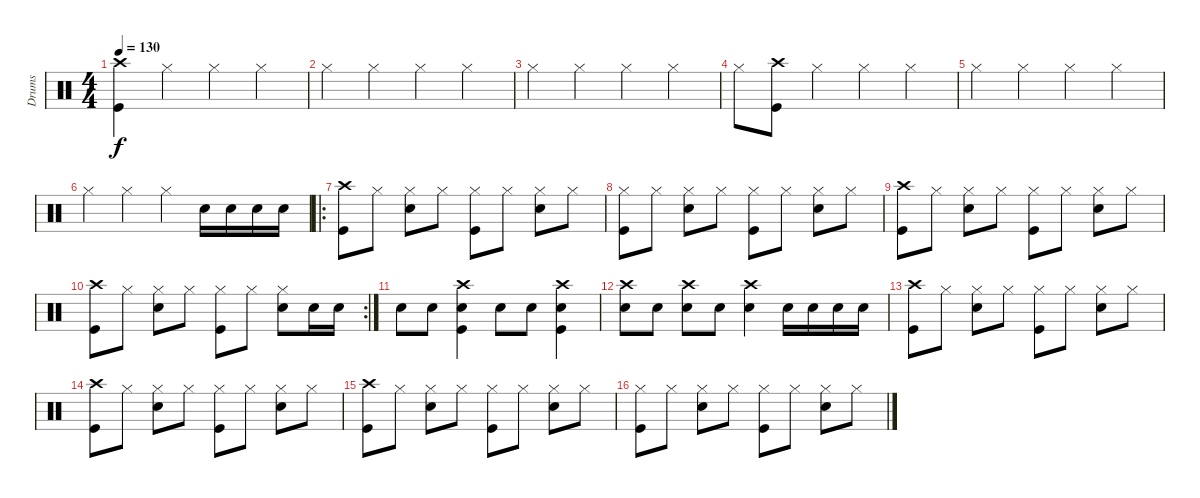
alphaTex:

\track ("Drums" "Drums") {instrument percussion}
\staff {score}
\articulation defaults
\ts (4 4)
\tempo 130
\clef neutral
\ks c
("Crash high (hit)" "Kick (hit)").4{dy f} "Hi-Hat (closed)".4 "Hi-Hat (closed)".4 "Hi-Hat (closed)".4 |
"Hi-Hat (closed)".4 "Hi-Hat (closed)".4 "Hi-Hat (closed)".4 "Hi-Hat (closed)".4 |
"Hi-Hat (closed)".4 "Hi-Hat (closed)".4 "Hi-Hat (closed)".4 "Hi-Hat (closed)".4 |
"Hi-Hat (closed)".8 ("Crash high (hit)" "Kick (hit)").8 "Hi-Hat (closed)".4 "Hi-Hat (closed)".4 "Hi-Hat (closed)".4 |
"Hi-Hat (closed)".4 "Hi-Hat (closed)".4 "Hi-Hat (closed)".4 "Hi-Hat (closed)".4 |
"Hi-Hat (closed)".4 "Hi-Hat (closed)".4 "Hi-Hat (closed)".4 "Snare (hit) 2".16 "Snare (hit) 2".16 "Snare (hit) 2".16 "Snare (hit) 2".16 |
\ro
("Crash high (hit)" "Kick (hit)").8 "Hi-Hat (closed)".8 ("Hi-Hat (closed)" "Snare (hit) 2").8 "Hi-Hat (closed)".8 ("Hi-Hat (closed)" "Kick (hit)").8 "Hi-Hat (closed)".8 ("Hi-Hat (closed)" "Snare (hit) 2").8 "Hi-Hat (closed)".8 |
("Hi-Hat (closed)" "Kick (hit)").8 "Hi-Hat (closed)".8 ("Hi-Hat (closed)" "Snare (hit) 2").8 "Hi-Hat (closed)".8 ("Hi-Hat (closed)" "Kick (hit)").8 "Hi-Hat (closed)".8 ("Hi-Hat (closed)" "Snare (hit) 2").8 "Hi-Hat (closed)".8 |
("Crash high (hit)" "Kick (hit)").8 "Hi-Hat (closed)".8 ("Hi-Hat (closed)" "Snare (hit) 2").8 "Hi-Hat (closed)".8 ("Hi-Hat (closed)" "Kick (hit)").8 "Hi-Hat (closed)".8 ("Hi-Hat (closed)" "Snare (hit) 2").8 "Hi-Hat (closed)".8 |
\rc 2
("Crash high (hit)" "Kick (hit)").8 "Hi-Hat (closed)".8 ("Hi-Hat (closed)" "Snare (hit) 2").8 "Hi-Hat (closed)".8 ("Hi-Hat (closed)" "Kick (hit)").8 "Hi-Hat (closed)".8 ("Hi-Hat (closed)" "Snare (hit) 2").8 "Snare (hit) 2".16 "Snare (hit) 2".16 |
"Snare (hit) 2".8 "Snare (hit) 2".8 ("Crash high (hit)" "Snare (hit) 2" "Kick (hit)").4 "Snare (hit) 2".8 "Snare (hit) 2".8 ("Crash high (hit)" "Snare (hit) 2" "Kick (hit)").4 |
("Crash high (hit)" "Snare (hit) 2").8 "Snare (hit) 2".8 ("Crash high (hit)" "Snare (hit) 2").8 "Snare (hit) 2".8 ("Crash high (hit)" "Snare (hit) 2").4 "Snare (hit) 2".16 "Snare (hit) 2".16 "Snare (hit) 2".16 "Snare (hit) 2".16 |
("Crash high (hit)" "Kick (hit)").8 "Hi-Hat (closed)".8 ("Hi-Hat (closed)" "Snare (hit) 2").8 "Hi-Hat (closed)".8 ("Hi-Hat (closed)" "Kick (hit)").8 "Hi-Hat (closed)".8 ("Hi-Hat (closed)" "Snare (hit) 2").8 "Hi-Hat (closed)".8 |
("Crash high (hit)" "Kick (hit)").8 "Hi-Hat (closed)".8 ("Hi-Hat (closed)" "Snare (hit) 2").8 "Hi-Hat (closed)".8 ("Hi-Hat (closed)" "Kick (hit)").8 "Hi-Hat (closed)".8 ("Hi-Hat (closed)" "Snare (hit) 2").8 "Hi-Hat (closed)".8 |
("Crash high (hit)" "Kick (hit)").8 "Hi-Hat (closed)".8 ("Hi-Hat (closed)" "Snare (hit) 2").8 "Hi-Hat (closed)".8 ("Hi-Hat (closed)" "Kick (hit)").8 "Hi-Hat (closed)".8 ("Hi-Hat (closed)" "Snare (hit) 2").8 "Hi-Hat (closed)".8 |
("Hi-Hat (closed)" "Kick (hit)").8 "Hi-Hat (closed)".8 ("Hi-Hat (closed)" "Snare (hit) 2").8 "Hi-Hat (closed)".8 ("Hi-Hat (closed)" "Kick (hit)").8 "Hi-Hat (closed)".8 ("Hi-Hat (closed)" "Snare (hit) 2").8 "Hi-Hat (closed)".8
